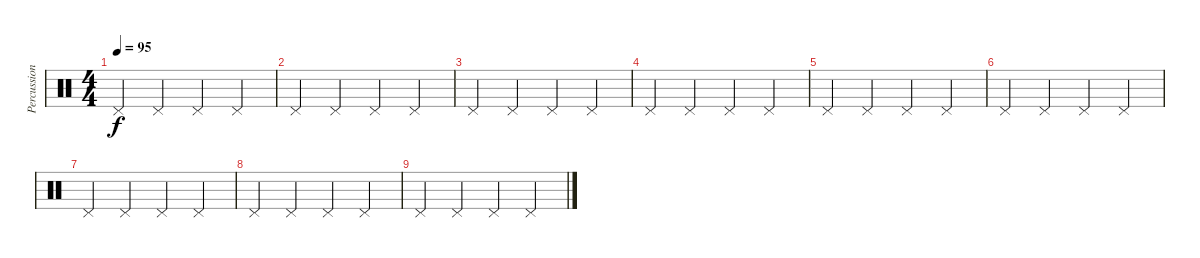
\track ("Percussion" "Percussion") {instrument percussion}
\staff {score}
\articulation defaults
\ts (4 4)
\tempo 95
\clef neutral
\ks c "Pedal Hi-Hat (hit)".4{dy f} "Pedal Hi-Hat (hit)".4 "Pedal Hi-Hat (hit)".4 "Pedal Hi-Hat (hit)".4
|
"Pedal Hi-Hat (hit)".4 "Pedal Hi-Hat (hit)".4 "Pedal Hi-Hat (hit)".4 "Pedal Hi-Hat (hit)".4 |
"Pedal Hi-Hat (hit)".4 "Pedal Hi-Hat (hit)".4 "Pedal Hi-Hat (hit)".4 "Pedal Hi-Hat (hit)".4 |
"Pedal Hi-Hat (hit)".4 "Pedal Hi-Hat (hit)".4 "Pedal Hi-Hat (hit)".4 "Pedal Hi-Hat (hit)".4 |
"Pedal Hi-Hat (hit)".4 "Pedal Hi-Hat (hit)".4 "Pedal Hi-Hat (hit)".4 "Pedal Hi-Hat (hit)".4 |
"Pedal Hi-Hat (hit)".4 "Pedal Hi-Hat (hit)".4 "Pedal Hi-Hat (hit)".4 "Pedal Hi-Hat (hit)".4 |
"Pedal Hi-Hat (hit)".4 "Pedal Hi-Hat (hit)".4 "Pedal Hi-Hat (hit)".4 "Pedal Hi-Hat (hit)".4 |
"Pedal Hi-Hat (hit)".4 "Pedal Hi-Hat (hit)".4 "Pedal Hi-Hat (hit)".4 "Pedal Hi-Hat (hit)".4 |
"Pedal Hi-Hat (hit)".4 "Pedal Hi-Hat (hit)".4 "Pedal Hi-Hat (hit)".4 "Pedal Hi-Hat (hit)".4
